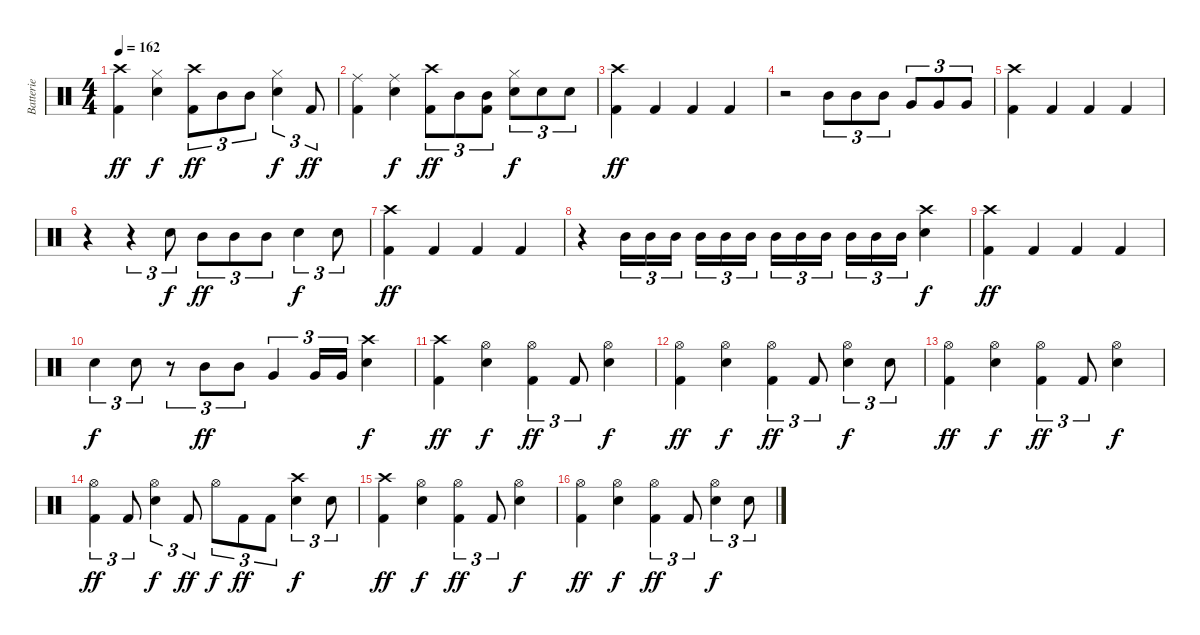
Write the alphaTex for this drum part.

\track ("Batterie" "Batterie") {instrument percussion}
\staff {score}
\articulation defaults
\ts (4 4)
\tempo 162
\clef neutral
\ks c
("Crash high (hit)" "Kick (hit) 2").4{dy ff} ("Hi-Hat (closed)" "Snare (hit) 2").4{dy f} ("Crash high (hit)" "Kick (hit) 2").8{tu (3 2) dy ff} "Mid Tom (hit)".8{tu (3 2)} "Mid Tom (hit)".8{tu (3 2)} ("Hi-Hat (closed)" "Snare (hit) 2").4{tu (3 2) dy f} "Kick (hit) 2".8{tu (3 2) dy ff} |
("Ride (middle)" "Kick (hit) 2").4 ("Ride (middle)" "Snare (hit) 2").4{dy f} ("Crash high (hit)" "Kick (hit) 2").8{tu (3 2) dy ff} "Mid Tom (hit)".8{tu (3 2)} ("Mid Tom (hit)" "Kick (hit) 2").8{tu (3 2)} ("Hi-Hat (closed)" "Snare (hit) 2").8{tu (3 2) dy f} "Snare (hit) 2".8{tu (3 2)} "Snare (hit) 2".8{tu (3 2)} |
("Crash high (hit)" "Kick (hit) 2").4{dy ff} "Kick (hit) 2".4 "Kick (hit) 2".4 "Kick (hit) 2".4 |
r.2 "Mid Tom (hit)".8{tu (3 2)} "Mid Tom (hit)".8{tu (3 2)} "Mid Tom (hit)".8{tu (3 2)} "Very Low Tom (hit)".8{tu (3 2)} "Very Low Tom (hit)".8{tu (3 2)} "Very Low Tom (hit)".8{tu (3 2)} |
("Crash high (hit)" "Kick (hit) 2").4 "Kick (hit) 2".4 "Kick (hit) 2".4 "Kick (hit) 2".4 |
r.4 r.4{tu (3 2)} "Snare (hit) 2".8{tu (3 2) dy f} "Mid Tom (hit)".8{tu (3 2) dy ff} "Mid Tom (hit)".8{tu (3 2)} "Mid Tom (hit)".8{tu (3 2)} "Snare (hit) 2".4{tu (3 2) dy f} "Snare (hit) 2".8{tu (3 2)} |
("Crash high (hit)" "Kick (hit) 2").4{dy ff} "Kick (hit) 2".4 "Kick (hit) 2".4 "Kick (hit) 2".4 |
r.4 "Mid Tom (hit)".16{tu (3 2)} "Mid Tom (hit)".16{tu (3 2)} "Mid Tom (hit)".16{tu (3 2)} "Mid Tom (hit)".16{tu (3 2)} "Mid Tom (hit)".16{tu (3 2)} "Mid Tom (hit)".16{tu (3 2)} "Mid Tom (hit)".16{tu (3 2)} "Mid Tom (hit)".16{tu (3 2)} "Mid Tom (hit)".16{tu (3 2)} "Mid Tom (hit)".16{tu (3 2)} "Mid Tom (hit)".16{tu (3 2)} "Mid Tom (hit)".16{tu (3 2)} ("Crash high (hit)" "Snare (hit) 2").4{dy f} |
("Crash high (hit)" "Kick (hit) 2").4{dy ff} "Kick (hit) 2".4 "Kick (hit) 2".4 "Kick (hit) 2".4 |
"Snare (hit) 2".4{tu (3 2) dy f} "Snare (hit) 2".8{tu (3 2)} r.8{tu (3 2)} "Mid Tom (hit)".8{tu (3 2) dy ff} "Mid Tom (hit)".8{tu (3 2)} "Very Low Tom (hit)".4{tu (3 2)} "Very Low Tom (hit)".16{tu (3 2)} "Very Low Tom (hit)".16{tu (3 2)} ("Crash high (hit)" "Snare (hit) 2").4{dy f} |
("Crash high (hit)" "Kick (hit) 2").4{dy ff} ("Hi-Hat (open)" "Snare (hit) 2").4{dy f} ("Hi-Hat (open)" "Kick (hit) 2").4{tu (3 2) dy ff} "Kick (hit) 2".8{tu (3 2)} ("Hi-Hat (open)" "Snare (hit) 2").4{dy f} |
("Hi-Hat (open)" "Kick (hit) 2").4{dy ff} ("Hi-Hat (open)" "Snare (hit) 2").4{dy f} ("Hi-Hat (open)" "Kick (hit) 2").4{tu (3 2) dy ff} "Kick (hit) 2".8{tu (3 2)} ("Hi-Hat (open)" "Snare (hit) 2").4{tu (3 2) dy f} "Snare (hit) 2".8{tu (3 2)} |
("Hi-Hat (open)" "Kick (hit) 2").4{dy ff} ("Hi-Hat (open)" "Snare (hit) 2").4{dy f} ("Hi-Hat (open)" "Kick (hit) 2").4{tu (3 2) dy ff} "Kick (hit) 2".8{tu (3 2)} ("Hi-Hat (open)" "Snare (hit) 2").4{dy f} |
("Hi-Hat (open)" "Kick (hit) 2").4{tu (3 2) dy ff} "Kick (hit) 2".8{tu (3 2)} ("Hi-Hat (open)" "Snare (hit) 2").4{tu (3 2) dy f} "Kick (hit) 2".8{tu (3 2) dy ff} "Hi-Hat (open)".8{tu (3 2) dy f} "Kick (hit) 2".8{tu (3 2) dy ff} "Kick (hit) 2".8{tu (3 2)} ("Crash high (hit)" "Snare (hit) 2").4{tu (3 2) dy f} "Snare (hit) 2".8{tu (3 2)} |
("Crash high (hit)" "Kick (hit) 2").4{dy ff} ("Hi-Hat (open)" "Snare (hit) 2").4{dy f} ("Hi-Hat (open)" "Kick (hit) 2").4{tu (3 2) dy ff} "Kick (hit) 2".8{tu (3 2)} ("Hi-Hat (open)" "Snare (hit) 2").4{dy f} |
("Hi-Hat (open)" "Kick (hit) 2").4{dy ff} ("Hi-Hat (open)" "Snare (hit) 2").4{dy f} ("Hi-Hat (open)" "Kick (hit) 2").4{tu (3 2) dy ff} "Kick (hit) 2".8{tu (3 2)} ("Hi-Hat (open)" "Snare (hit) 2").4{tu (3 2) dy f} "Snare (hit) 2".8{tu (3 2)}
